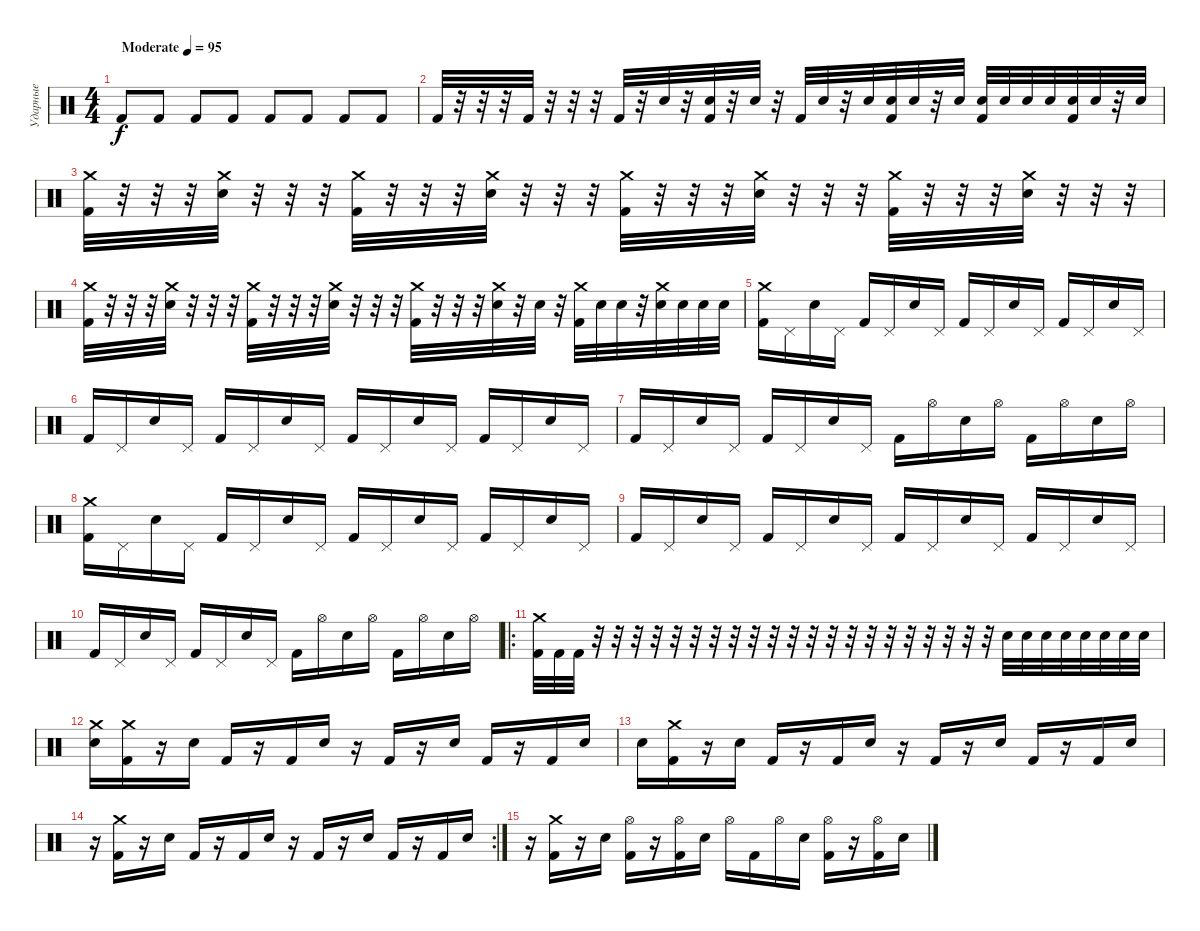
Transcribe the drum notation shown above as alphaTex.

\track ("Ударные" "Ударные") {instrument percussion}
\staff {score}
\articulation defaults
\ts (4 4)
\tempo (95 "Moderate")
\clef neutral
\ks c "Kick (hit) 2".8{dy f} "Kick (hit) 2".8 "Kick (hit) 2".8 "Kick (hit) 2".8 "Kick (hit) 2".8 "Kick (hit) 2".8 "Kick (hit) 2".8 "Kick (hit) 2".8
|
"Kick (hit) 2".32 r.32 r.32 r.32 "Kick (hit) 2".32 r.32 r.32 r.32 "Kick (hit) 2".32 r.32 "Electric Snare (hit)".32 r.32 ("Kick (hit) 2" "Electric Snare (hit)").32 r.32 "Electric Snare (hit)".32 r.32 "Kick (hit) 2".32 "Electric Snare (hit)".32 r.32 "Electric Snare (hit)".32 ("Kick (hit) 2" "Electric Snare (hit)").32 "Electric Snare (hit)".32 r.32 "Electric Snare (hit)".32 ("Kick (hit) 2" "Electric Snare (hit)").32 "Electric Snare (hit)".32 "Electric Snare (hit)".32 "Electric Snare (hit)".32 ("Kick (hit) 2" "Electric Snare (hit)").32 "Electric Snare (hit)".32 r.32 "Electric Snare (hit)".32 |
("Crash medium (hit)" "Kick (hit) 2").32 r.32 r.32 r.32 ("Crash medium (hit)" "Electric Snare (hit)").32 r.32 r.32 r.32 ("Crash medium (hit)" "Kick (hit) 2").32 r.32 r.32 r.32 ("Crash medium (hit)" "Electric Snare (hit)").32 r.32 r.32 r.32 ("Crash medium (hit)" "Kick (hit) 2").32 r.32 r.32 r.32 ("Crash medium (hit)" "Electric Snare (hit)").32 r.32 r.32 r.32 ("Crash medium (hit)" "Kick (hit) 2").32 r.32 r.32 r.32 ("Crash medium (hit)" "Electric Snare (hit)").32 r.32 r.32 r.32 |
("Crash medium (hit)" "Kick (hit) 2").32 r.32 r.32 r.32 ("Crash medium (hit)" "Electric Snare (hit)").32 r.32 r.32 r.32 ("Crash medium (hit)" "Kick (hit) 2").32 r.32 r.32 r.32 ("Crash medium (hit)" "Electric Snare (hit)").32 r.32 r.32 r.32 ("Crash medium (hit)" "Kick (hit) 2").32 r.32 r.32 r.32 ("Crash medium (hit)" "Electric Snare (hit)").32 r.32 "Electric Snare (hit)".32 r.32 ("Crash medium (hit)" "Kick (hit) 2").32 "Electric Snare (hit)".32 "Electric Snare (hit)".32 r.32 ("Crash medium (hit)" "Electric Snare (hit)").32 "Electric Snare (hit)".32 "Electric Snare (hit)".32 "Electric Snare (hit)".32 |
("Crash medium (hit)" "Kick (hit) 2").16 "Pedal Hi-Hat (hit)".16 "Electric Snare (hit)".16 "Pedal Hi-Hat (hit)".16 "Kick (hit) 2".16 "Pedal Hi-Hat (hit)".16 "Electric Snare (hit)".16 "Pedal Hi-Hat (hit)".16 "Kick (hit) 2".16 "Pedal Hi-Hat (hit)".16 "Electric Snare (hit)".16 "Pedal Hi-Hat (hit)".16 "Kick (hit) 2".16 "Pedal Hi-Hat (hit)".16 "Electric Snare (hit)".16 "Pedal Hi-Hat (hit)".16 |
"Kick (hit) 2".16 "Pedal Hi-Hat (hit)".16 "Electric Snare (hit)".16 "Pedal Hi-Hat (hit)".16 "Kick (hit) 2".16 "Pedal Hi-Hat (hit)".16 "Electric Snare (hit)".16 "Pedal Hi-Hat (hit)".16 "Kick (hit) 2".16 "Pedal Hi-Hat (hit)".16 "Electric Snare (hit)".16 "Pedal Hi-Hat (hit)".16 "Kick (hit) 2".16 "Pedal Hi-Hat (hit)".16 "Electric Snare (hit)".16 "Pedal Hi-Hat (hit)".16 |
"Kick (hit) 2".16 "Pedal Hi-Hat (hit)".16 "Electric Snare (hit)".16 "Pedal Hi-Hat (hit)".16 "Kick (hit) 2".16 "Pedal Hi-Hat (hit)".16 "Electric Snare (hit)".16 "Pedal Hi-Hat (hit)".16 "Kick (hit) 2".16 "Hi-Hat (open)".16 "Electric Snare (hit)".16 "Hi-Hat (open)".16 "Kick (hit) 2".16 "Hi-Hat (open)".16 "Electric Snare (hit)".16 "Hi-Hat (open)".16 |
("Crash medium (hit)" "Kick (hit) 2").16 "Pedal Hi-Hat (hit)".16 "Electric Snare (hit)".16 "Pedal Hi-Hat (hit)".16 "Kick (hit) 2".16 "Pedal Hi-Hat (hit)".16 "Electric Snare (hit)".16 "Pedal Hi-Hat (hit)".16 "Kick (hit) 2".16 "Pedal Hi-Hat (hit)".16 "Electric Snare (hit)".16 "Pedal Hi-Hat (hit)".16 "Kick (hit) 2".16 "Pedal Hi-Hat (hit)".16 "Electric Snare (hit)".16 "Pedal Hi-Hat (hit)".16 |
"Kick (hit) 2".16 "Pedal Hi-Hat (hit)".16 "Electric Snare (hit)".16 "Pedal Hi-Hat (hit)".16 "Kick (hit) 2".16 "Pedal Hi-Hat (hit)".16 "Electric Snare (hit)".16 "Pedal Hi-Hat (hit)".16 "Kick (hit) 2".16 "Pedal Hi-Hat (hit)".16 "Electric Snare (hit)".16 "Pedal Hi-Hat (hit)".16 "Kick (hit) 2".16 "Pedal Hi-Hat (hit)".16 "Electric Snare (hit)".16 "Pedal Hi-Hat (hit)".16 |
"Kick (hit) 2".16 "Pedal Hi-Hat (hit)".16 "Electric Snare (hit)".16 "Pedal Hi-Hat (hit)".16 "Kick (hit) 2".16 "Pedal Hi-Hat (hit)".16 "Electric Snare (hit)".16 "Pedal Hi-Hat (hit)".16 "Kick (hit) 2".16 "Hi-Hat (open)".16 "Electric Snare (hit)".16 "Hi-Hat (open)".16 "Kick (hit) 2".16 "Hi-Hat (open)".16 "Electric Snare (hit)".16 "Hi-Hat (open)".16 |
\ro
("Kick (hit) 2" "Crash medium (hit)").32 "Kick (hit) 2".32 "Kick (hit) 2".32 r.32 r.32 r.32 r.32 r.32 r.32 r.32 r.32 r.32 r.32 r.32 r.32 r.32 r.32 r.32 r.32 r.32 r.32 r.32 r.32 r.32 "Electric Snare (hit)".32 "Electric Snare (hit)".32 "Electric Snare (hit)".32 "Electric Snare (hit)".32 "Electric Snare (hit)".32 "Electric Snare (hit)".32 "Electric Snare (hit)".32 "Electric Snare (hit)".32 |
("Crash medium (hit)" "Electric Snare (hit)").16 ("Crash medium (hit)" "Kick (hit) 2").16 r.16 "Electric Snare (hit)".16 "Kick (hit) 2".16 r.16 "Kick (hit) 2".16 "Electric Snare (hit)".16 r.16 "Kick (hit) 2".16 r.16 "Electric Snare (hit)".16 "Kick (hit) 2".16 r.16 "Kick (hit) 2".16 "Electric Snare (hit)".16 |
"Electric Snare (hit)".16 ("Crash medium (hit)" "Kick (hit) 2").16 r.16 "Electric Snare (hit)".16 "Kick (hit) 2".16 r.16 "Kick (hit) 2".16 "Electric Snare (hit)".16 r.16 "Kick (hit) 2".16 r.16 "Electric Snare (hit)".16 "Kick (hit) 2".16 r.16 "Kick (hit) 2".16 "Electric Snare (hit)".16 |
\rc 2
r.16 ("Crash medium (hit)" "Kick (hit) 2").16 r.16 "Electric Snare (hit)".16 "Kick (hit) 2".16 r.16 "Kick (hit) 2".16 "Electric Snare (hit)".16 r.16 "Kick (hit) 2".16 r.16 "Electric Snare (hit)".16 "Kick (hit) 2".16 r.16 "Kick (hit) 2".16 "Electric Snare (hit)".16 |
r.16 ("Crash medium (hit)" "Kick (hit) 2").16 r.16 "Electric Snare (hit)".16 ("Hi-Hat (open)" "Kick (hit) 2").16 r.16 ("Hi-Hat (open)" "Kick (hit) 2").16 "Electric Snare (hit)".16 "Hi-Hat (open)".16 "Kick (hit) 2".16 "Hi-Hat (open)".16 "Electric Snare (hit)".16 ("Hi-Hat (open)" "Kick (hit) 2").16 r.16 ("Hi-Hat (open)" "Kick (hit) 2").16 "Electric Snare (hit)".16
